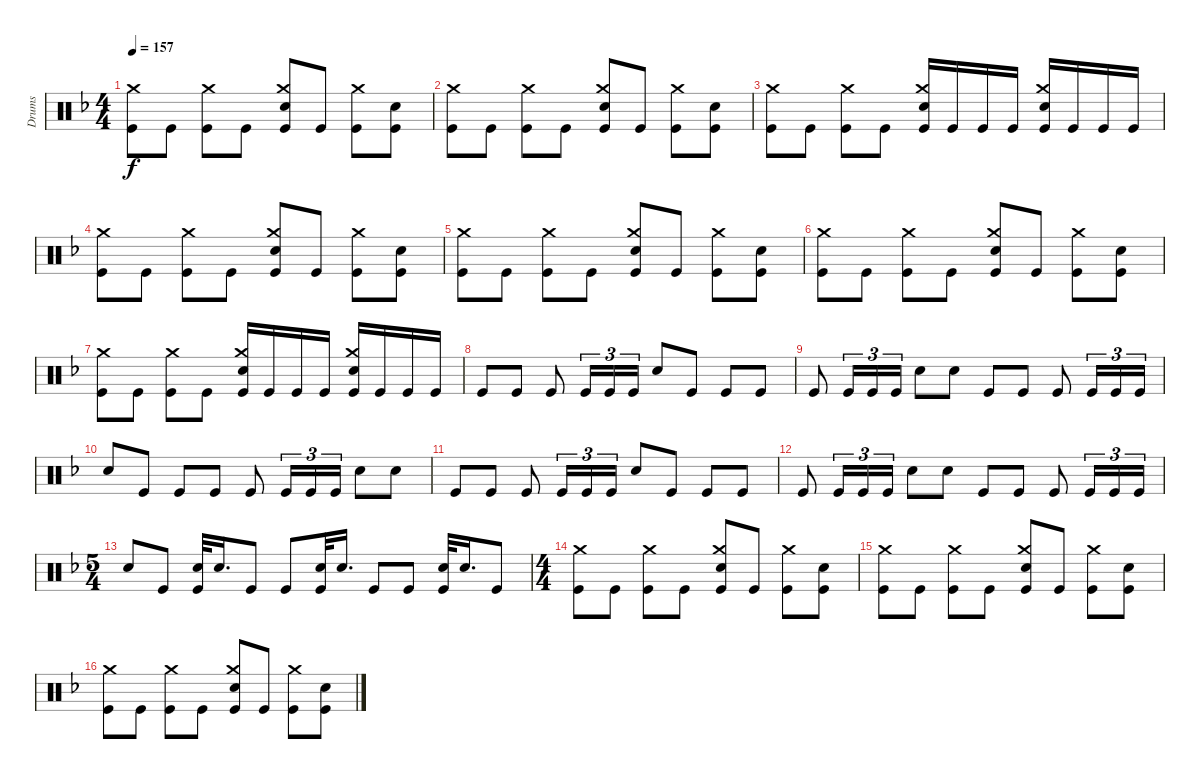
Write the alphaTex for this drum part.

\track ("Drums" "Drums") {instrument percussion}
\staff {score}
\articulation defaults
\ts (4 4)
\tempo 157
\clef neutral
\ks f
("Kick (hit)" "Crash medium (hit)").8{dy f} "Kick (hit)".8 ("Kick (hit)" "Crash medium (hit)").8 "Kick (hit)".8 ("Kick (hit)" "Crash medium (hit)" "Snare (hit) 2").8 "Kick (hit)".8 ("Kick (hit)" "Crash medium (hit)").8 ("Kick (hit)" "Snare (hit) 2").8 |
("Kick (hit)" "Crash medium (hit)").8 "Kick (hit)".8 ("Kick (hit)" "Crash medium (hit)").8 "Kick (hit)".8 ("Kick (hit)" "Crash medium (hit)" "Snare (hit) 2").8 "Kick (hit)".8 ("Kick (hit)" "Crash medium (hit)").8 ("Kick (hit)" "Snare (hit) 2").8 |
("Kick (hit)" "Crash medium (hit)").8 "Kick (hit)".8 ("Kick (hit)" "Crash medium (hit)").8 "Kick (hit)".8 ("Kick (hit)" "Crash medium (hit)" "Snare (hit) 2").16 "Kick (hit)".16 "Kick (hit)".16 "Kick (hit)".16 ("Kick (hit)" "Crash medium (hit)" "Snare (hit) 2").16 "Kick (hit)".16 "Kick (hit)".16 "Kick (hit)".16 |
("Kick (hit)" "Crash medium (hit)").8 "Kick (hit)".8 ("Kick (hit)" "Crash medium (hit)").8 "Kick (hit)".8 ("Kick (hit)" "Crash medium (hit)" "Snare (hit) 2").8 "Kick (hit)".8 ("Kick (hit)" "Crash medium (hit)").8 ("Kick (hit)" "Snare (hit) 2").8 |
("Kick (hit)" "Crash medium (hit)").8 "Kick (hit)".8 ("Kick (hit)" "Crash medium (hit)").8 "Kick (hit)".8 ("Kick (hit)" "Crash medium (hit)" "Snare (hit) 2").8 "Kick (hit)".8 ("Kick (hit)" "Crash medium (hit)").8 ("Kick (hit)" "Snare (hit) 2").8 |
("Kick (hit)" "Crash medium (hit)").8 "Kick (hit)".8 ("Kick (hit)" "Crash medium (hit)").8 "Kick (hit)".8 ("Kick (hit)" "Crash medium (hit)" "Snare (hit) 2").8 "Kick (hit)".8 ("Kick (hit)" "Crash medium (hit)").8 ("Kick (hit)" "Snare (hit) 2").8 |
("Kick (hit)" "Crash medium (hit)").8 "Kick (hit)".8 ("Kick (hit)" "Crash medium (hit)").8 "Kick (hit)".8 ("Kick (hit)" "Crash medium (hit)" "Snare (hit) 2").16 "Kick (hit)".16 "Kick (hit)".16 "Kick (hit)".16 ("Kick (hit)" "Crash medium (hit)" "Snare (hit) 2").16 "Kick (hit)".16 "Kick (hit)".16 "Kick (hit)".16 |
"Kick (hit)".8 "Kick (hit)".8 "Kick (hit)".8 "Kick (hit)".16{tu (3 2)} "Kick (hit)".16{tu (3 2)} "Kick (hit)".16{tu (3 2)} "Snare (hit) 2".8 "Kick (hit)".8 "Kick (hit)".8 "Kick (hit)".8 |
"Kick (hit)".8 "Kick (hit)".16{tu (3 2)} "Kick (hit)".16{tu (3 2)} "Kick (hit)".16{tu (3 2)} "Snare (hit) 2".8 "Snare (hit) 2".8 "Kick (hit)".8 "Kick (hit)".8 "Kick (hit)".8 "Kick (hit)".16{tu (3 2)} "Kick (hit)".16{tu (3 2)} "Kick (hit)".16{tu (3 2)} |
"Snare (hit) 2".8 "Kick (hit)".8 "Kick (hit)".8 "Kick (hit)".8 "Kick (hit)".8 "Kick (hit)".16{tu (3 2)} "Kick (hit)".16{tu (3 2)} "Kick (hit)".16{tu (3 2)} "Snare (hit) 2".8 "Snare (hit) 2".8 |
"Kick (hit)".8 "Kick (hit)".8 "Kick (hit)".8 "Kick (hit)".16{tu (3 2)} "Kick (hit)".16{tu (3 2)} "Kick (hit)".16{tu (3 2)} "Snare (hit) 2".8 "Kick (hit)".8 "Kick (hit)".8 "Kick (hit)".8 |
"Kick (hit)".8 "Kick (hit)".16{tu (3 2)} "Kick (hit)".16{tu (3 2)} "Kick (hit)".16{tu (3 2)} "Snare (hit) 2".8 "Snare (hit) 2".8 "Kick (hit)".8 "Kick (hit)".8 "Kick (hit)".8 "Kick (hit)".16{tu (3 2)} "Kick (hit)".16{tu (3 2)} "Kick (hit)".16{tu (3 2)} |
\ts (5 4)
"Snare (hit) 2".8 "Kick (hit)".8 ("Snare (hit) 2" "Kick (hit)").32 "Snare (hit) 2".16{d} "Kick (hit)".8 "Kick (hit)".8 ("Snare (hit) 2" "Kick (hit)").32 "Snare (hit) 2".16{d} "Kick (hit)".8 "Kick (hit)".8 ("Snare (hit) 2" "Kick (hit)").32 "Snare (hit) 2".16{d} "Kick (hit)".8 |
\ts (4 4)
("Kick (hit)" "Crash medium (hit)").8 "Kick (hit)".8 ("Kick (hit)" "Crash medium (hit)").8 "Kick (hit)".8 ("Kick (hit)" "Crash medium (hit)" "Snare (hit) 2").8 "Kick (hit)".8 ("Kick (hit)" "Crash medium (hit)").8 ("Kick (hit)" "Snare (hit) 2").8 |
("Kick (hit)" "Crash medium (hit)").8 "Kick (hit)".8 ("Kick (hit)" "Crash medium (hit)").8 "Kick (hit)".8 ("Kick (hit)" "Crash medium (hit)" "Snare (hit) 2").8 "Kick (hit)".8 ("Kick (hit)" "Crash medium (hit)").8 ("Kick (hit)" "Snare (hit) 2").8 |
("Kick (hit)" "Crash medium (hit)").8 "Kick (hit)".8 ("Kick (hit)" "Crash medium (hit)").8 "Kick (hit)".8 ("Kick (hit)" "Crash medium (hit)" "Snare (hit) 2").8 "Kick (hit)".8 ("Kick (hit)" "Crash medium (hit)").8 ("Kick (hit)" "Snare (hit) 2").8
